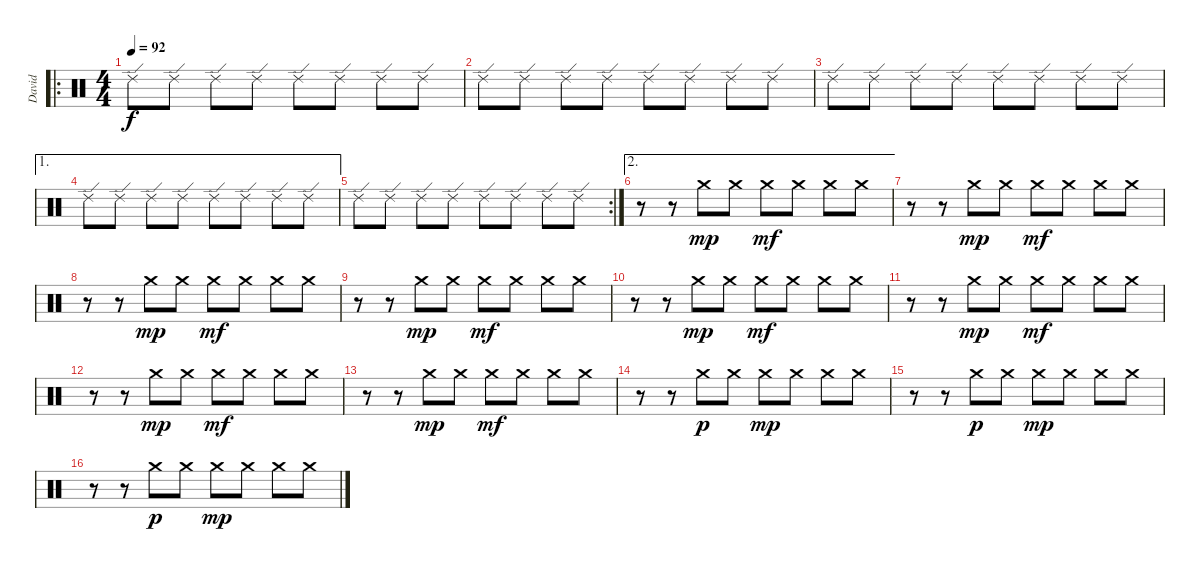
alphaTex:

\track ("David" "David") {instrument percussion}
\staff {score}
\articulation defaults
\ro
\ts (4 4)
\tempo 92
\clef neutral
\ks c "Ride (edge) 2".8{dy f} "Ride (edge) 2".8 "Ride (edge) 2".8 "Ride (edge) 2".8 "Ride (edge) 2".8 "Ride (edge) 2".8 "Ride (edge) 2".8 "Ride (edge) 2".8
|
"Ride (edge) 2".8 "Ride (edge) 2".8 "Ride (edge) 2".8 "Ride (edge) 2".8 "Ride (edge) 2".8 "Ride (edge) 2".8 "Ride (edge) 2".8 "Ride (edge) 2".8 |
"Ride (edge) 2".8 "Ride (edge) 2".8 "Ride (edge) 2".8 "Ride (edge) 2".8 "Ride (edge) 2".8 "Ride (edge) 2".8 "Ride (edge) 2".8 "Ride (edge) 2".8 |
\ae 1 "Ride (edge) 2".8 "Ride (edge) 2".8 "Ride (edge) 2".8 "Ride (edge) 2".8 "Ride (edge) 2".8 "Ride (edge) 2".8 "Ride (edge) 2".8 "Ride (edge) 2".8
|
\rc 2 "Ride (edge) 2".8 "Ride (edge) 2".8 "Ride (edge) 2".8 "Ride (edge) 2".8 "Ride (edge) 2".8 "Ride (edge) 2".8 "Ride (edge) 2".8 "Ride (edge) 2".8
|
\ae 2
r.8 r.8 "Crash medium (hit)".8{dy mp} "Crash medium (hit)".8 "Crash medium (hit)".8{dy mf} "Crash medium (hit)".8 "Crash medium (hit)".8 "Crash medium (hit)".8 |
r.8 r.8 "Crash medium (hit)".8{dy mp} "Crash medium (hit)".8 "Crash medium (hit)".8{dy mf} "Crash medium (hit)".8 "Crash medium (hit)".8 "Crash medium (hit)".8 |
r.8 r.8 "Crash medium (hit)".8{dy mp} "Crash medium (hit)".8 "Crash medium (hit)".8{dy mf} "Crash medium (hit)".8 "Crash medium (hit)".8 "Crash medium (hit)".8 |
r.8 r.8 "Crash medium (hit)".8{dy mp} "Crash medium (hit)".8 "Crash medium (hit)".8{dy mf} "Crash medium (hit)".8 "Crash medium (hit)".8 "Crash medium (hit)".8 |
r.8 r.8 "Crash medium (hit)".8{dy mp} "Crash medium (hit)".8 "Crash medium (hit)".8{dy mf} "Crash medium (hit)".8 "Crash medium (hit)".8 "Crash medium (hit)".8 |
r.8 r.8 "Crash medium (hit)".8{dy mp} "Crash medium (hit)".8 "Crash medium (hit)".8{dy mf} "Crash medium (hit)".8 "Crash medium (hit)".8 "Crash medium (hit)".8 |
r.8 r.8 "Crash medium (hit)".8{dy mp} "Crash medium (hit)".8 "Crash medium (hit)".8{dy mf} "Crash medium (hit)".8 "Crash medium (hit)".8 "Crash medium (hit)".8 |
r.8 r.8 "Crash medium (hit)".8{dy mp} "Crash medium (hit)".8 "Crash medium (hit)".8{dy mf} "Crash medium (hit)".8 "Crash medium (hit)".8 "Crash medium (hit)".8 |
r.8 r.8 "Crash medium (hit)".8{dy p} "Crash medium (hit)".8 "Crash medium (hit)".8{dy mp} "Crash medium (hit)".8 "Crash medium (hit)".8 "Crash medium (hit)".8 |
r.8 r.8 "Crash medium (hit)".8{dy p} "Crash medium (hit)".8 "Crash medium (hit)".8{dy mp} "Crash medium (hit)".8 "Crash medium (hit)".8 "Crash medium (hit)".8 |
r.8 r.8 "Crash medium (hit)".8{dy p} "Crash medium (hit)".8 "Crash medium (hit)".8{dy mp} "Crash medium (hit)".8 "Crash medium (hit)".8 "Crash medium (hit)".8
